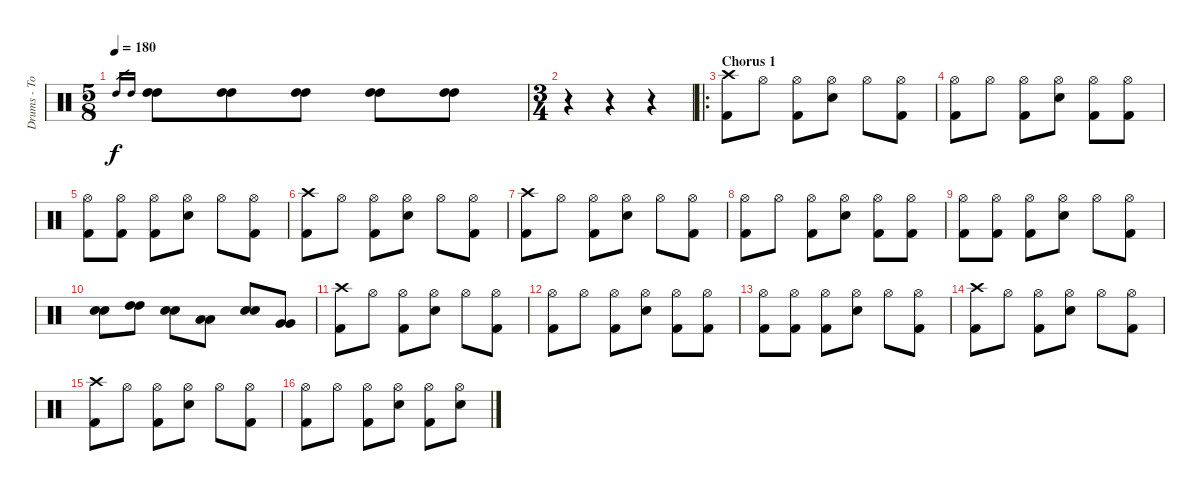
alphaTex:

\track ("Drums - Tomas" "Drums - To") {instrument percussion}
\staff {score}
\articulation defaults
\ts (5 8)
\tempo 180
\clef neutral
\ks c "High Tom (hit)".16{gr dy f} "High Tom (hit)".16{gr}
("High Tom (hit)" "High Tom (hit)").8{volume 16} ("High Tom (hit)" "High Tom (hit)").8 ("High Tom (hit)" "High Tom (hit)").8 ("High Tom (hit)" "High Tom (hit)").8 ("High Tom (hit)" "High Tom (hit)").8 |
\ts (3 4)
r.4 r.4 r.4 |
\ro
\section ("" "Chorus 1")
("Crash high (hit)" "Kick (hit) 2").8 "Hi-Hat (open)".8 ("Hi-Hat (open)" "Kick (hit) 2").8 ("Hi-Hat (open)" "Electric Snare (hit)").8 "Hi-Hat (open)".8 ("Hi-Hat (open)" "Kick (hit) 2").8 |
("Hi-Hat (open)" "Kick (hit) 2").8 "Hi-Hat (open)".8 ("Hi-Hat (open)" "Kick (hit) 2").8 ("Hi-Hat (open)" "Electric Snare (hit)").8 ("Hi-Hat (open)" "Kick (hit) 2").8 ("Hi-Hat (open)" "Kick (hit) 2").8 |
("Hi-Hat (open)" "Kick (hit) 2").8 ("Hi-Hat (open)" "Kick (hit) 2").8 ("Hi-Hat (open)" "Kick (hit) 2").8 ("Hi-Hat (open)" "Electric Snare (hit)").8 "Hi-Hat (open)".8 ("Hi-Hat (open)" "Kick (hit) 2").8 |
("Crash high (hit)" "Kick (hit) 2").8 "Hi-Hat (open)".8 ("Hi-Hat (open)" "Kick (hit) 2").8 ("Hi-Hat (open)" "Electric Snare (hit)").8 "Hi-Hat (open)".8 ("Hi-Hat (open)" "Kick (hit) 2").8 |
("Crash high (hit)" "Kick (hit) 2").8 "Hi-Hat (open)".8 ("Hi-Hat (open)" "Kick (hit) 2").8 ("Hi-Hat (open)" "Electric Snare (hit)").8 "Hi-Hat (open)".8 ("Hi-Hat (open)" "Kick (hit) 2").8 |
("Hi-Hat (open)" "Kick (hit) 2").8 "Hi-Hat (open)".8 ("Hi-Hat (open)" "Kick (hit) 2").8 ("Hi-Hat (open)" "Electric Snare (hit)").8 ("Hi-Hat (open)" "Kick (hit) 2").8 ("Hi-Hat (open)" "Kick (hit) 2").8 |
("Hi-Hat (open)" "Kick (hit) 2").8 ("Hi-Hat (open)" "Kick (hit) 2").8 ("Hi-Hat (open)" "Kick (hit) 2").8 ("Hi-Hat (open)" "Electric Snare (hit)").8 "Hi-Hat (open)".8 ("Hi-Hat (open)" "Kick (hit) 2").8 |
("Electric Snare (hit)" "Electric Snare (hit)").8 ("High Tom (hit)" "High Tom (hit)").8 ("Electric Snare (hit)" "Electric Snare (hit)").8 ("Low Tom (hit)" "Low Tom (hit)").8 ("Electric Snare (hit)" "Electric Snare (hit)").8 ("Very Low Tom (hit)" "Very Low Tom (hit)").8 |
("Crash high (hit)" "Kick (hit) 2").8 "Hi-Hat (open)".8 ("Hi-Hat (open)" "Kick (hit) 2").8 ("Hi-Hat (open)" "Electric Snare (hit)").8 "Hi-Hat (open)".8 ("Hi-Hat (open)" "Kick (hit) 2").8 |
("Hi-Hat (open)" "Kick (hit) 2").8 "Hi-Hat (open)".8 ("Hi-Hat (open)" "Kick (hit) 2").8 ("Hi-Hat (open)" "Electric Snare (hit)").8 ("Hi-Hat (open)" "Kick (hit) 2").8 ("Hi-Hat (open)" "Kick (hit) 2").8 |
("Hi-Hat (open)" "Kick (hit) 2").8 ("Hi-Hat (open)" "Kick (hit) 2").8 ("Hi-Hat (open)" "Kick (hit) 2").8 ("Hi-Hat (open)" "Electric Snare (hit)").8 "Hi-Hat (open)".8 ("Hi-Hat (open)" "Kick (hit) 2").8 |
("Crash high (hit)" "Kick (hit) 2").8 "Hi-Hat (open)".8 ("Hi-Hat (open)" "Kick (hit) 2").8 ("Hi-Hat (open)" "Electric Snare (hit)").8 "Hi-Hat (open)".8 ("Hi-Hat (open)" "Kick (hit) 2").8 |
("Crash high (hit)" "Kick (hit) 2").8 "Hi-Hat (open)".8 ("Hi-Hat (open)" "Kick (hit) 2").8 ("Hi-Hat (open)" "Electric Snare (hit)").8 "Hi-Hat (open)".8 ("Hi-Hat (open)" "Kick (hit) 2").8 |
("Hi-Hat (open)" "Kick (hit) 2").8 "Hi-Hat (open)".8 ("Hi-Hat (open)" "Kick (hit) 2").8 ("Hi-Hat (open)" "Electric Snare (hit)").8 ("Hi-Hat (open)" "Kick (hit) 2").8 ("Hi-Hat (open)" "Electric Snare (hit)").8
